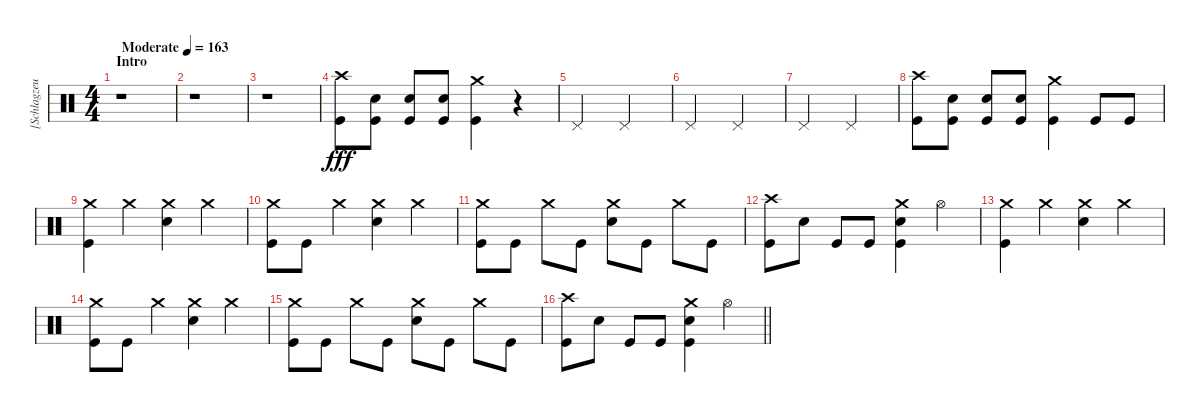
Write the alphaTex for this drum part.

\track ("[Schlagzeug]" "[Schlagzeu") {instrument percussion}
\staff {score}
\articulation defaults
\ts (4 4)
\section ("" "Intro")
\tempo (163 "Moderate")
\clef neutral
\ks c
r.1{dy fff} |
r.1 |
r.1 |
("Kick (hit)" "Crash high (hit)").8 ("Kick (hit)" "Electric Snare (hit)").8 ("Kick (hit)" "Electric Snare (hit)").8 ("Kick (hit)" "Electric Snare (hit)").8 ("Kick (hit)" "Crash medium (hit)").4 r.4 |
"Pedal Hi-Hat (hit)".2 "Pedal Hi-Hat (hit)".2 |
"Pedal Hi-Hat (hit)".2 "Pedal Hi-Hat (hit)".2 |
"Pedal Hi-Hat (hit)".2 "Pedal Hi-Hat (hit)".2 |
("Kick (hit)" "Crash high (hit)").8 ("Kick (hit)" "Electric Snare (hit)").8 ("Kick (hit)" "Electric Snare (hit)").8 ("Kick (hit)" "Electric Snare (hit)").8 ("Kick (hit)" "Crash medium (hit)").4 "Kick (hit)".8 "Kick (hit)".8 |
("Crash medium (hit)" "Kick (hit)").4 "Crash medium (hit)".4 ("Crash medium (hit)" "Electric Snare (hit)").4 "Crash medium (hit)".4 |
("Crash medium (hit)" "Kick (hit)").8 "Kick (hit)".8 "Crash medium (hit)".4 ("Crash medium (hit)" "Electric Snare (hit)").4 "Crash medium (hit)".4 |
("Crash medium (hit)" "Kick (hit)").8 "Kick (hit)".8 "Crash medium (hit)".8 "Kick (hit)".8 ("Crash medium (hit)" "Electric Snare (hit)").8 "Kick (hit)".8 "Crash medium (hit)".8 "Kick (hit)".8 |
("Kick (hit)" "Crash high (hit)").8 "Electric Snare (hit)".8 "Kick (hit)".8 "Kick (hit)".8 ("Kick (hit)" "Electric Snare (hit)" "Crash medium (hit)").4 "Hi-Hat (open)".4 |
("Crash medium (hit)" "Kick (hit)").4 "Crash medium (hit)".4 ("Crash medium (hit)" "Electric Snare (hit)").4 "Crash medium (hit)".4 |
("Crash medium (hit)" "Kick (hit)").8 "Kick (hit)".8 "Crash medium (hit)".4 ("Crash medium (hit)" "Electric Snare (hit)").4 "Crash medium (hit)".4 |
("Crash medium (hit)" "Kick (hit)").8 "Kick (hit)".8 "Crash medium (hit)".8 "Kick (hit)".8 ("Crash medium (hit)" "Electric Snare (hit)").8 "Kick (hit)".8 "Crash medium (hit)".8 "Kick (hit)".8 |
\barLineRight lightlight
("Kick (hit)" "Crash high (hit)").8 "Electric Snare (hit)".8 "Kick (hit)".8 "Kick (hit)".8 ("Kick (hit)" "Electric Snare (hit)" "Crash medium (hit)").4 "Hi-Hat (open)".4
